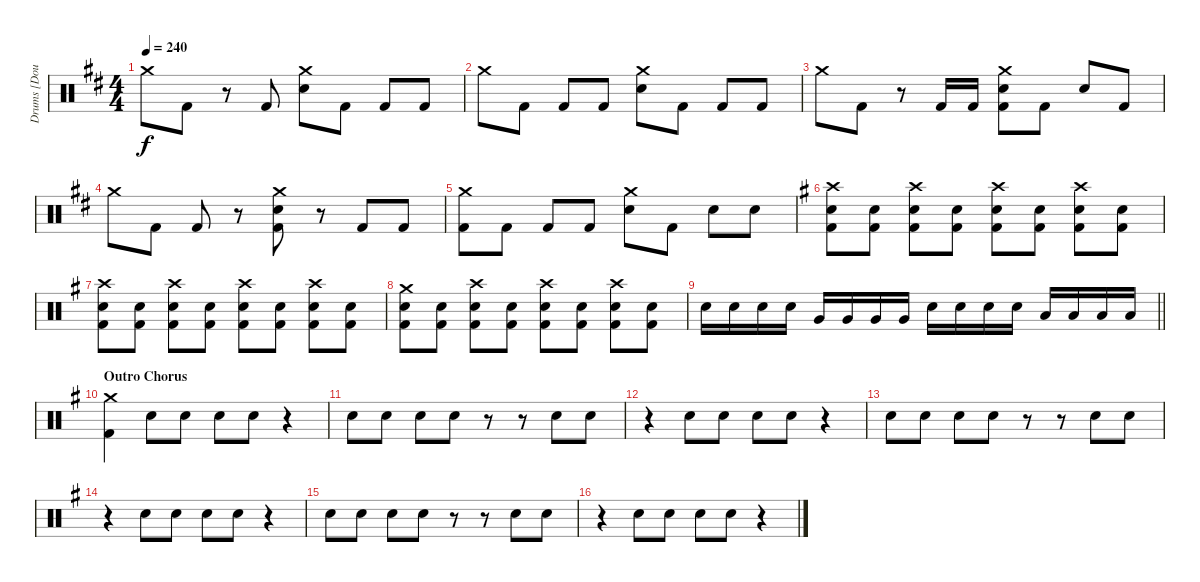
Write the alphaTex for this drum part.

\track ("Drums [Doug Anderson]" "Drums [Dou") {instrument percussion}
\staff {score}
\articulation defaults
\ts (4 4)
\tempo 240
\clef neutral
\ks bminor "Crash medium (hit)".8{dy f} "Kick (hit) 2".8
r.8 "Kick (hit) 2".8 ("Crash medium (hit)" "Electric Snare (hit)").8 "Kick (hit) 2".8 "Kick (hit) 2".8 "Kick (hit) 2".8 |
"Crash medium (hit)".8 "Kick (hit) 2".8 "Kick (hit) 2".8 "Kick (hit) 2".8 ("Crash medium (hit)" "Electric Snare (hit)").8 "Kick (hit) 2".8 "Kick (hit) 2".8 "Kick (hit) 2".8 |
"Crash medium (hit)".8 "Kick (hit) 2".8 r.8 "Kick (hit) 2".16 "Kick (hit) 2".16 ("Crash medium (hit)" "Electric Snare (hit)" "Kick (hit) 2").8 "Kick (hit) 2".8 "Electric Snare (hit)".8 "Kick (hit) 2".8 |
"Crash medium (hit)".8 "Kick (hit) 2".8 "Kick (hit) 2".8 r.8 ("Crash medium (hit)" "Electric Snare (hit)" "Kick (hit) 2").8 r.8 "Kick (hit) 2".8 "Kick (hit) 2".8 |
("Crash medium (hit)" "Kick (hit) 2").8 "Kick (hit) 2".8 "Kick (hit) 2".8 "Kick (hit) 2".8 ("Crash medium (hit)" "Electric Snare (hit)").8 "Kick (hit) 2".8 "Electric Snare (hit)".8 "Electric Snare (hit)".8 |
\ks eminor
("Crash high (hit)" "Electric Snare (hit)" "Kick (hit) 2").8 ("Electric Snare (hit)" "Kick (hit) 2").8 ("Crash high (hit)" "Electric Snare (hit)" "Kick (hit) 2").8 ("Electric Snare (hit)" "Kick (hit) 2").8 ("Crash high (hit)" "Electric Snare (hit)" "Kick (hit) 2").8 ("Electric Snare (hit)" "Kick (hit) 2").8 ("Crash high (hit)" "Electric Snare (hit)" "Kick (hit) 2").8 ("Electric Snare (hit)" "Kick (hit) 2").8 |
("Crash high (hit)" "Electric Snare (hit)" "Kick (hit) 2").8 ("Electric Snare (hit)" "Kick (hit) 2").8 ("Crash high (hit)" "Electric Snare (hit)" "Kick (hit) 2").8 ("Electric Snare (hit)" "Kick (hit) 2").8 ("Crash high (hit)" "Electric Snare (hit)" "Kick (hit) 2").8 ("Electric Snare (hit)" "Kick (hit) 2").8 ("Crash high (hit)" "Electric Snare (hit)" "Kick (hit) 2").8 ("Electric Snare (hit)" "Kick (hit) 2").8 |
("Crash medium (hit)" "Electric Snare (hit)" "Kick (hit) 2").8 ("Electric Snare (hit)" "Kick (hit) 2").8 ("Crash high (hit)" "Electric Snare (hit)" "Kick (hit) 2").8 ("Electric Snare (hit)" "Kick (hit) 2").8 ("Crash high (hit)" "Electric Snare (hit)" "Kick (hit) 2").8 ("Electric Snare (hit)" "Kick (hit) 2").8 ("Crash high (hit)" "Electric Snare (hit)" "Kick (hit) 2").8 ("Electric Snare (hit)" "Kick (hit) 2").8 |
\barLineRight lightlight "Electric Snare (hit)".16 "Electric Snare (hit)".16 "Electric Snare (hit)".16 "Electric Snare (hit)".16 "Very Low Tom (hit)".16 "Very Low Tom (hit)".16 "Very Low Tom (hit)".16 "Very Low Tom (hit)".16 "Electric Snare (hit)".16 "Electric Snare (hit)".16 "Electric Snare (hit)".16 "Electric Snare (hit)".16 "Low Tom (hit)".16 "Low Tom (hit)".16 "Low Tom (hit)".16 "Low Tom (hit)".16
|
\section ("" "Outro Chorus")
("Crash medium (hit)" "Kick (hit) 2").4 "Electric Snare (hit)".8 "Electric Snare (hit)".8 "Electric Snare (hit)".8 "Electric Snare (hit)".8 r.4 |
"Electric Snare (hit)".8 "Electric Snare (hit)".8 "Electric Snare (hit)".8 "Electric Snare (hit)".8 r.8 r.8 "Electric Snare (hit)".8 "Electric Snare (hit)".8 |
r.4 "Electric Snare (hit)".8 "Electric Snare (hit)".8 "Electric Snare (hit)".8 "Electric Snare (hit)".8 r.4 |
"Electric Snare (hit)".8 "Electric Snare (hit)".8 "Electric Snare (hit)".8 "Electric Snare (hit)".8 r.8 r.8 "Electric Snare (hit)".8 "Electric Snare (hit)".8 |
r.4 "Electric Snare (hit)".8 "Electric Snare (hit)".8 "Electric Snare (hit)".8 "Electric Snare (hit)".8 r.4 |
"Electric Snare (hit)".8 "Electric Snare (hit)".8 "Electric Snare (hit)".8 "Electric Snare (hit)".8 r.8 r.8 "Electric Snare (hit)".8 "Electric Snare (hit)".8 |
r.4 "Electric Snare (hit)".8 "Electric Snare (hit)".8 "Electric Snare (hit)".8 "Electric Snare (hit)".8 r.4
